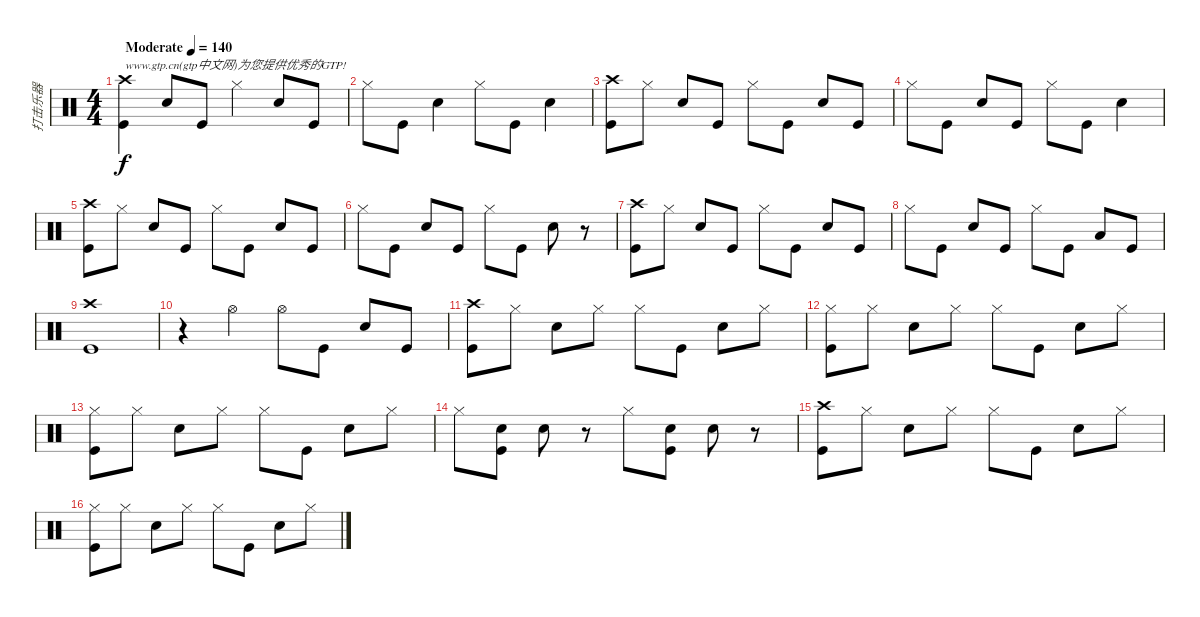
\track ("打击乐器" "打击乐器") {instrument percussion}
\staff {score}
\articulation defaults
\ts (4 4)
\tempo (140 "Moderate")
\clef neutral
\ks c
("Crash high (hit)" "Kick (hit)").4{txt "www.gtp.cn(gtp中文网)为您提供优秀的GTP!" dy f} "Snare (hit) 2".8 "Kick (hit)".8 "Hi-Hat (closed)".4 "Snare (hit) 2".8 "Kick (hit)".8 |
"Hi-Hat (closed)".8 "Kick (hit)".8 "Snare (hit) 2".4 "Hi-Hat (closed)".8 "Kick (hit)".8 "Snare (hit) 2".4 |
("Crash high (hit)" "Kick (hit)").8 "Hi-Hat (closed)".8 "Snare (hit) 2".8 "Kick (hit)".8 "Hi-Hat (closed)".8 "Kick (hit)".8 "Snare (hit) 2".8 "Kick (hit)".8 |
"Hi-Hat (closed)".8 "Kick (hit)".8 "Snare (hit) 2".8 "Kick (hit)".8 "Hi-Hat (closed)".8 "Kick (hit)".8 "Snare (hit) 2".4 |
("Crash high (hit)" "Kick (hit)").8 "Hi-Hat (closed)".8 "Snare (hit) 2".8 "Kick (hit)".8 "Hi-Hat (closed)".8 "Kick (hit)".8 "Snare (hit) 2".8 "Kick (hit)".8 |
"Hi-Hat (closed)".8 "Kick (hit)".8 "Snare (hit) 2".8 "Kick (hit)".8 "Hi-Hat (closed)".8 "Kick (hit)".8 "Snare (hit) 2".8 r.8 |
("Crash high (hit)" "Kick (hit)").8 "Hi-Hat (closed)".8 "Snare (hit) 2".8 "Kick (hit)".8 "Hi-Hat (closed)".8 "Kick (hit)".8 "Snare (hit) 2".8 "Kick (hit)".8 |
"Hi-Hat (closed)".8 "Kick (hit)".8 "Snare (hit) 2".8 "Kick (hit)".8 "Hi-Hat (closed)".8 "Kick (hit)".8 "Low Floor Tom (hit)".8 "Kick (hit)".8 |
("Crash high (hit)" "Kick (hit)").1 |
r.4 "Hi-Hat (open)".4 "Hi-Hat (open)".8 "Kick (hit)".8 "Snare (hit) 2".8 "Kick (hit)".8 |
("Crash high (hit)" "Kick (hit)").8 "Hi-Hat (closed)".8 "Snare (hit) 2".8 "Hi-Hat (closed)".8 "Hi-Hat (closed)".8 "Kick (hit)".8 "Snare (hit) 2".8 "Hi-Hat (closed)".8 |
("Hi-Hat (closed)" "Kick (hit)").8 "Hi-Hat (closed)".8 "Snare (hit) 2".8 "Hi-Hat (closed)".8 "Hi-Hat (closed)".8 "Kick (hit)".8 "Snare (hit) 2".8 "Hi-Hat (closed)".8 |
("Hi-Hat (closed)" "Kick (hit)").8 "Hi-Hat (closed)".8 "Snare (hit) 2".8 "Hi-Hat (closed)".8 "Hi-Hat (closed)".8 "Kick (hit)".8 "Snare (hit) 2".8 "Hi-Hat (closed)".8 |
"Hi-Hat (closed)".8 ("Snare (hit) 2" "Kick (hit)").8 "Snare (hit) 2".8 r.8 "Hi-Hat (closed)".8 ("Snare (hit) 2" "Kick (hit)").8 "Snare (hit) 2".8 r.8 |
("Crash high (hit)" "Kick (hit)").8 "Hi-Hat (closed)".8 "Snare (hit) 2".8 "Hi-Hat (closed)".8 "Hi-Hat (closed)".8 "Kick (hit)".8 "Snare (hit) 2".8 "Hi-Hat (closed)".8 |
("Hi-Hat (closed)" "Kick (hit)").8 "Hi-Hat (closed)".8 "Snare (hit) 2".8 "Hi-Hat (closed)".8 "Hi-Hat (closed)".8 "Kick (hit)".8 "Snare (hit) 2".8 "Hi-Hat (closed)".8
